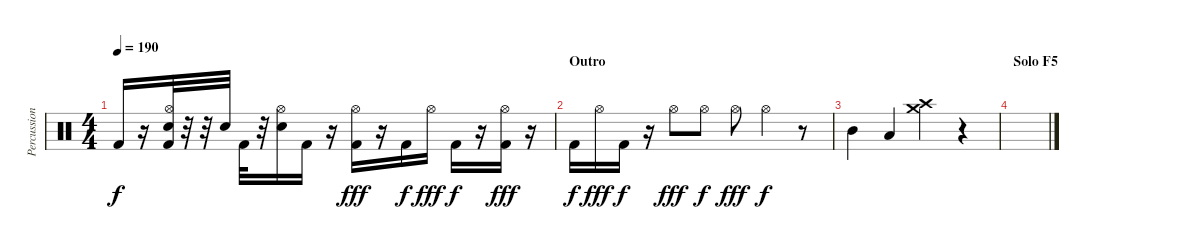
\track ("Percussion" "Percussion") {instrument percussion}
\staff {score}
\articulation defaults
\ts (4 4)
\tempo 190
\clef neutral
\ks c "Kick (hit) 2".16{dy f}
r.16 ("Hi-Hat (open)" "Electric Snare (hit)" "Kick (hit) 2").32 r.32 r.32 "Electric Snare (hit)".32 "Kick (hit) 2".32 r.32 ("Hi-Hat (open)" "Electric Snare (hit)").16 "Kick (hit) 2".16 r.16 ("Hi-Hat (open)" "Kick (hit) 2").16{dy fff} r.16 "Kick (hit) 2".16{dy f} "Hi-Hat (open)".16{dy fff} "Kick (hit) 2".16{dy f} r.16 ("Hi-Hat (open)" "Kick (hit) 2").16{dy fff} r.16 |
\section ("" "Outro")
"Kick (hit) 2".16{dy f} "Hi-Hat (open)".16{dy fff} "Kick (hit) 2".16{dy f} r.16 "Hi-Hat (open)".8{dy fff} "Hi-Hat (open)".8{dy f} "Hi-Hat (open)".8{dy fff} "Hi-Hat (open)".4{dy f} r.8 |
"Mid Tom (hit)".4 "Low Tom (hit)".4 ("Crash high (hit)" "Crash medium (hit)").4 r.4 |
\section ("" "Solo F5")
